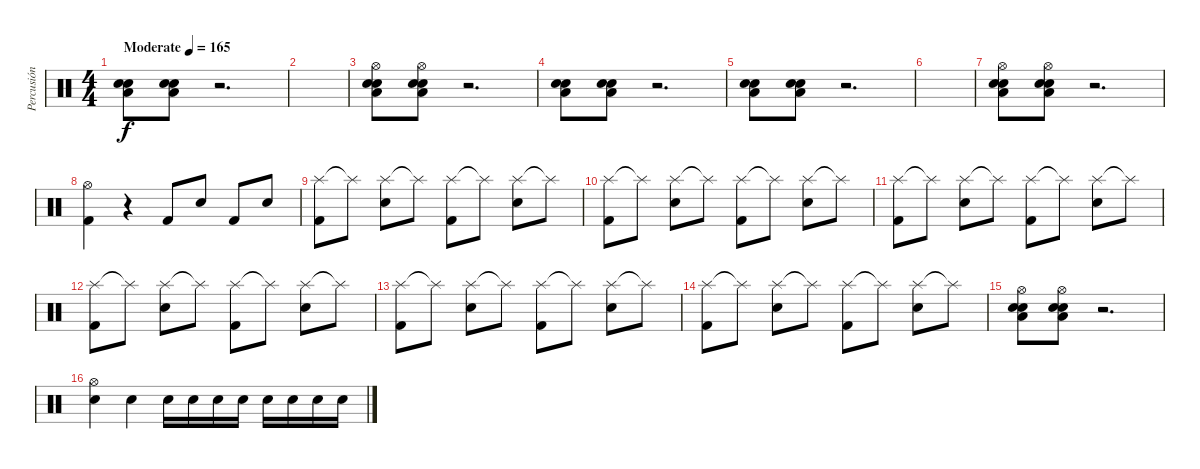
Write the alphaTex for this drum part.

\track ("Percusión" "Percusión") {instrument percussion}
\staff {score}
\articulation defaults
\ts (4 4)
\tempo (165 "Moderate")
\clef neutral
\ks c
("Electric Snare (hit)" "Low Tom (hit)" "Snare (hit) 2").8{dy f} ("Electric Snare (hit)" "Low Tom (hit)" "Snare (hit) 2").8 r.2{d} |
|
("Hi-Hat (open)" "Electric Snare (hit)" "Low Tom (hit)" "Snare (hit) 2").8 ("Hi-Hat (open)" "Electric Snare (hit)" "Low Tom (hit)" "Snare (hit) 2").8 r.2{d} |
("Electric Snare (hit)" "Low Tom (hit)" "Snare (hit) 2").8 ("Electric Snare (hit)" "Low Tom (hit)" "Snare (hit) 2").8 r.2{d} |
("Electric Snare (hit)" "Low Tom (hit)" "Snare (hit) 2").8 ("Electric Snare (hit)" "Low Tom (hit)" "Snare (hit) 2").8 r.2{d} |
|
("Hi-Hat (open)" "Electric Snare (hit)" "Low Tom (hit)" "Snare (hit) 2").8 ("Hi-Hat (open)" "Electric Snare (hit)" "Low Tom (hit)" "Snare (hit) 2").8 r.2{d} |
("Hi-Hat (open)" "Kick (hit) 2").4 r.4 "Kick (hit) 2".8 "Electric Snare (hit)".8 "Kick (hit) 2".8 "Electric Snare (hit)".8 |
("Splash (hit)" "Kick (hit) 2").8 "Splash (hit)"{t}.8 ("Splash (hit)" "Electric Snare (hit)").8 "Splash (hit)"{t}.8 ("Splash (hit)" "Kick (hit) 2").8 "Splash (hit)"{t}.8 ("Splash (hit)" "Electric Snare (hit)").8 "Splash (hit)"{t}.8 |
("Splash (hit)" "Kick (hit) 2").8 "Splash (hit)"{t}.8 ("Splash (hit)" "Electric Snare (hit)").8 "Splash (hit)"{t}.8 ("Splash (hit)" "Kick (hit) 2").8 "Splash (hit)"{t}.8 ("Splash (hit)" "Electric Snare (hit)").8 "Splash (hit)"{t}.8 |
("Splash (hit)" "Kick (hit) 2").8 "Splash (hit)"{t}.8 ("Splash (hit)" "Electric Snare (hit)").8 "Splash (hit)"{t}.8 ("Splash (hit)" "Kick (hit) 2").8 "Splash (hit)"{t}.8 ("Splash (hit)" "Electric Snare (hit)").8 "Splash (hit)"{t}.8 |
("Splash (hit)" "Kick (hit) 2").8 "Splash (hit)"{t}.8 ("Splash (hit)" "Electric Snare (hit)").8 "Splash (hit)"{t}.8 ("Splash (hit)" "Kick (hit) 2").8 "Splash (hit)"{t}.8 ("Splash (hit)" "Electric Snare (hit)").8 "Splash (hit)"{t}.8 |
("Splash (hit)" "Kick (hit) 2").8 "Splash (hit)"{t}.8 ("Splash (hit)" "Electric Snare (hit)").8 "Splash (hit)"{t}.8 ("Splash (hit)" "Kick (hit) 2").8 "Splash (hit)"{t}.8 ("Splash (hit)" "Electric Snare (hit)").8 "Splash (hit)"{t}.8 |
("Splash (hit)" "Kick (hit) 2").8 "Splash (hit)"{t}.8 ("Splash (hit)" "Electric Snare (hit)").8 "Splash (hit)"{t}.8 ("Splash (hit)" "Kick (hit) 2").8 "Splash (hit)"{t}.8 ("Splash (hit)" "Electric Snare (hit)").8 "Splash (hit)"{t}.8 |
("Hi-Hat (open)" "Electric Snare (hit)" "Low Tom (hit)" "Snare (hit) 2").8 ("Hi-Hat (open)" "Electric Snare (hit)" "Low Tom (hit)" "Snare (hit) 2").8 r.2{d} |
("Hi-Hat (open)" "Snare (hit) 2").4 "Electric Snare (hit)".4 "Electric Snare (hit)".16 "Electric Snare (hit)".16 "Electric Snare (hit)".16 "Electric Snare (hit)".16 "Electric Snare (hit)".16 "Electric Snare (hit)".16 "Electric Snare (hit)".16 "Electric Snare (hit)".16
